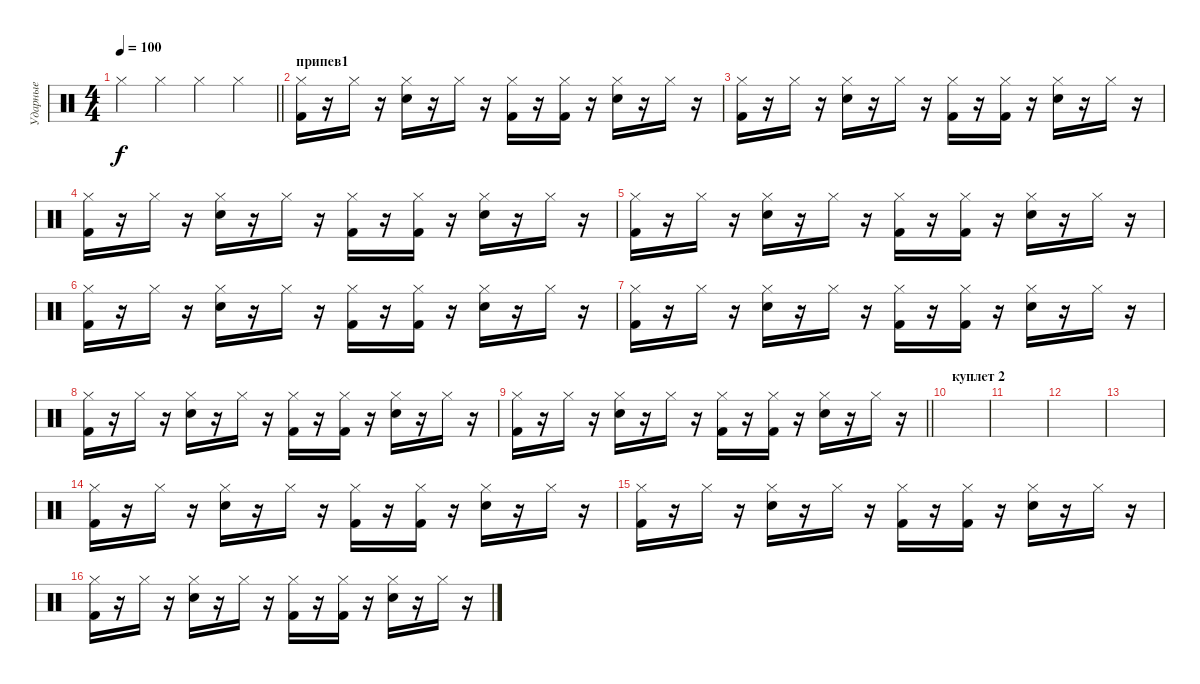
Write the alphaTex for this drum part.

\track ("Ударные" "Ударные") {instrument percussion}
\staff {score}
\articulation defaults
\ts (4 4)
\tempo 100
\clef neutral
\barLineRight lightlight
\ks c "Hi-Hat (closed)".4{dy f} "Hi-Hat (closed)".4 "Hi-Hat (closed)".4 "Hi-Hat (closed)".4
|
\section ("" "припев1 ")
("Kick (hit) 2" "Hi-Hat (closed)").16 r.16 "Hi-Hat (closed)".16 r.16 ("Snare (hit) 2" "Hi-Hat (closed)").16 r.16 "Hi-Hat (closed)".16 r.16 ("Kick (hit) 2" "Hi-Hat (closed)").16 r.16 ("Kick (hit) 2" "Hi-Hat (closed)").16 r.16 ("Snare (hit) 2" "Hi-Hat (closed)").16 r.16 "Hi-Hat (closed)".16 r.16 |
("Kick (hit) 2" "Hi-Hat (closed)").16 r.16 "Hi-Hat (closed)".16 r.16 ("Snare (hit) 2" "Hi-Hat (closed)").16 r.16 "Hi-Hat (closed)".16 r.16 ("Kick (hit) 2" "Hi-Hat (closed)").16 r.16 ("Kick (hit) 2" "Hi-Hat (closed)").16 r.16 ("Snare (hit) 2" "Hi-Hat (closed)").16 r.16 "Hi-Hat (closed)".16 r.16 |
("Kick (hit) 2" "Hi-Hat (closed)").16 r.16 "Hi-Hat (closed)".16 r.16 ("Snare (hit) 2" "Hi-Hat (closed)").16 r.16 "Hi-Hat (closed)".16 r.16 ("Kick (hit) 2" "Hi-Hat (closed)").16 r.16 ("Kick (hit) 2" "Hi-Hat (closed)").16 r.16 ("Snare (hit) 2" "Hi-Hat (closed)").16 r.16 "Hi-Hat (closed)".16 r.16 |
("Kick (hit) 2" "Hi-Hat (closed)").16 r.16 "Hi-Hat (closed)".16 r.16 ("Snare (hit) 2" "Hi-Hat (closed)").16 r.16 "Hi-Hat (closed)".16 r.16 ("Kick (hit) 2" "Hi-Hat (closed)").16 r.16 ("Kick (hit) 2" "Hi-Hat (closed)").16 r.16 ("Snare (hit) 2" "Hi-Hat (closed)").16 r.16 "Hi-Hat (closed)".16 r.16 |
("Kick (hit) 2" "Hi-Hat (closed)").16 r.16 "Hi-Hat (closed)".16 r.16 ("Snare (hit) 2" "Hi-Hat (closed)").16 r.16 "Hi-Hat (closed)".16 r.16 ("Kick (hit) 2" "Hi-Hat (closed)").16 r.16 ("Kick (hit) 2" "Hi-Hat (closed)").16 r.16 ("Snare (hit) 2" "Hi-Hat (closed)").16 r.16 "Hi-Hat (closed)".16 r.16 |
("Kick (hit) 2" "Hi-Hat (closed)").16 r.16 "Hi-Hat (closed)".16 r.16 ("Snare (hit) 2" "Hi-Hat (closed)").16 r.16 "Hi-Hat (closed)".16 r.16 ("Kick (hit) 2" "Hi-Hat (closed)").16 r.16 ("Kick (hit) 2" "Hi-Hat (closed)").16 r.16 ("Snare (hit) 2" "Hi-Hat (closed)").16 r.16 "Hi-Hat (closed)".16 r.16 |
("Kick (hit) 2" "Hi-Hat (closed)").16 r.16 "Hi-Hat (closed)".16 r.16 ("Snare (hit) 2" "Hi-Hat (closed)").16 r.16 "Hi-Hat (closed)".16 r.16 ("Kick (hit) 2" "Hi-Hat (closed)").16 r.16 ("Kick (hit) 2" "Hi-Hat (closed)").16 r.16 ("Snare (hit) 2" "Hi-Hat (closed)").16 r.16 "Hi-Hat (closed)".16 r.16 |
\barLineRight lightlight
("Kick (hit) 2" "Hi-Hat (closed)").16 r.16 "Hi-Hat (closed)".16 r.16 ("Snare (hit) 2" "Hi-Hat (closed)").16 r.16 "Hi-Hat (closed)".16 r.16 ("Kick (hit) 2" "Hi-Hat (closed)").16 r.16 ("Kick (hit) 2" "Hi-Hat (closed)").16 r.16 ("Snare (hit) 2" "Hi-Hat (closed)").16 r.16 "Hi-Hat (closed)".16 r.16 |
\section ("" "куплет 2")
|
|
|
|
("Kick (hit) 2" "Hi-Hat (closed)").16 r.16 "Hi-Hat (closed)".16 r.16 ("Snare (hit) 2" "Hi-Hat (closed)").16 r.16 "Hi-Hat (closed)".16 r.16 ("Kick (hit) 2" "Hi-Hat (closed)").16 r.16 ("Kick (hit) 2" "Hi-Hat (closed)").16 r.16 ("Snare (hit) 2" "Hi-Hat (closed)").16 r.16 "Hi-Hat (closed)".16 r.16 |
("Kick (hit) 2" "Hi-Hat (closed)").16 r.16 "Hi-Hat (closed)".16 r.16 ("Snare (hit) 2" "Hi-Hat (closed)").16 r.16 "Hi-Hat (closed)".16 r.16 ("Kick (hit) 2" "Hi-Hat (closed)").16 r.16 ("Kick (hit) 2" "Hi-Hat (closed)").16 r.16 ("Snare (hit) 2" "Hi-Hat (closed)").16 r.16 "Hi-Hat (closed)".16 r.16 |
("Kick (hit) 2" "Hi-Hat (closed)").16 r.16 "Hi-Hat (closed)".16 r.16 ("Snare (hit) 2" "Hi-Hat (closed)").16 r.16 "Hi-Hat (closed)".16 r.16 ("Kick (hit) 2" "Hi-Hat (closed)").16 r.16 ("Kick (hit) 2" "Hi-Hat (closed)").16 r.16 ("Snare (hit) 2" "Hi-Hat (closed)").16 r.16 "Hi-Hat (closed)".16 r.16
